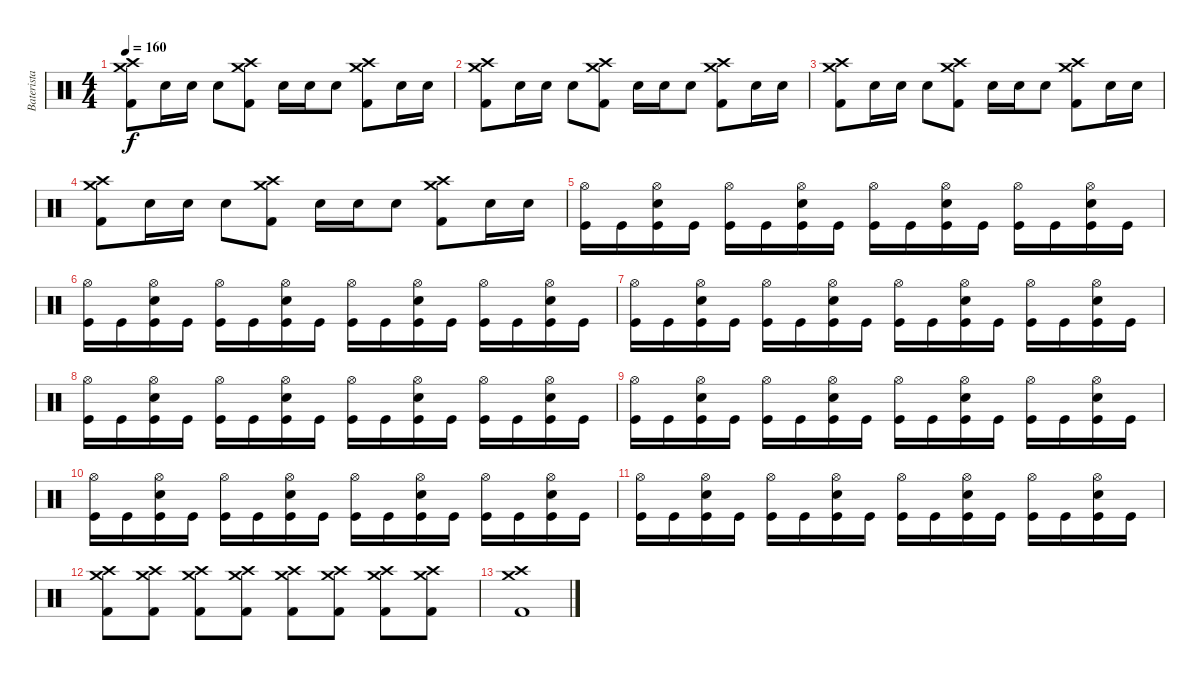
\track ("Baterista" "Baterista") {instrument percussion}
\staff {score}
\articulation defaults
\ts (4 4)
\tempo 160
\clef neutral
\ks c
("Kick (hit) 2" "Crash high (hit)" "Crash medium (hit)").8{dy f} "Electric Snare (hit)".16 "Electric Snare (hit)".16 "Electric Snare (hit)".8 ("Kick (hit) 2" "Crash high (hit)" "Crash medium (hit)").8 "Electric Snare (hit)".16 "Electric Snare (hit)".16 "Electric Snare (hit)".8 ("Kick (hit) 2" "Crash high (hit)" "Crash medium (hit)").8 "Electric Snare (hit)".16 "Electric Snare (hit)".16 |
("Kick (hit) 2" "Crash high (hit)" "Crash medium (hit)").8 "Electric Snare (hit)".16 "Electric Snare (hit)".16 "Electric Snare (hit)".8 ("Kick (hit) 2" "Crash high (hit)" "Crash medium (hit)").8 "Electric Snare (hit)".16 "Electric Snare (hit)".16 "Electric Snare (hit)".8 ("Kick (hit) 2" "Crash high (hit)" "Crash medium (hit)").8 "Electric Snare (hit)".16 "Electric Snare (hit)".16 |
("Kick (hit) 2" "Crash high (hit)" "Crash medium (hit)").8 "Electric Snare (hit)".16 "Electric Snare (hit)".16 "Electric Snare (hit)".8 ("Kick (hit) 2" "Crash high (hit)" "Crash medium (hit)").8 "Electric Snare (hit)".16 "Electric Snare (hit)".16 "Electric Snare (hit)".8 ("Kick (hit) 2" "Crash high (hit)" "Crash medium (hit)").8 "Electric Snare (hit)".16 "Electric Snare (hit)".16 |
("Kick (hit) 2" "Crash high (hit)" "Crash medium (hit)").8 "Electric Snare (hit)".16 "Electric Snare (hit)".16 "Electric Snare (hit)".8 ("Kick (hit) 2" "Crash high (hit)" "Crash medium (hit)").8 "Electric Snare (hit)".16 "Electric Snare (hit)".16 "Electric Snare (hit)".8 ("Kick (hit) 2" "Crash high (hit)" "Crash medium (hit)").8 "Electric Snare (hit)".16 "Electric Snare (hit)".16 |
("Hi-Hat (open)" "Kick (hit)").16 "Kick (hit)".16 ("Hi-Hat (open)" "Snare (hit) 2" "Kick (hit)").16 "Kick (hit)".16 ("Hi-Hat (open)" "Kick (hit)").16 "Kick (hit)".16 ("Hi-Hat (open)" "Snare (hit) 2" "Kick (hit)").16 "Kick (hit)".16 ("Hi-Hat (open)" "Kick (hit)").16 "Kick (hit)".16 ("Hi-Hat (open)" "Snare (hit) 2" "Kick (hit)").16 "Kick (hit)".16 ("Hi-Hat (open)" "Kick (hit)").16 "Kick (hit)".16 ("Hi-Hat (open)" "Snare (hit) 2" "Kick (hit)").16 "Kick (hit)".16 |
("Hi-Hat (open)" "Kick (hit)").16 "Kick (hit)".16 ("Hi-Hat (open)" "Snare (hit) 2" "Kick (hit)").16 "Kick (hit)".16 ("Hi-Hat (open)" "Kick (hit)").16 "Kick (hit)".16 ("Hi-Hat (open)" "Snare (hit) 2" "Kick (hit)").16 "Kick (hit)".16 ("Hi-Hat (open)" "Kick (hit)").16 "Kick (hit)".16 ("Hi-Hat (open)" "Snare (hit) 2" "Kick (hit)").16 "Kick (hit)".16 ("Hi-Hat (open)" "Kick (hit)").16 "Kick (hit)".16 ("Hi-Hat (open)" "Snare (hit) 2" "Kick (hit)").16 "Kick (hit)".16 |
("Hi-Hat (open)" "Kick (hit)").16 "Kick (hit)".16 ("Hi-Hat (open)" "Snare (hit) 2" "Kick (hit)").16 "Kick (hit)".16 ("Hi-Hat (open)" "Kick (hit)").16 "Kick (hit)".16 ("Hi-Hat (open)" "Snare (hit) 2" "Kick (hit)").16 "Kick (hit)".16 ("Hi-Hat (open)" "Kick (hit)").16 "Kick (hit)".16 ("Hi-Hat (open)" "Snare (hit) 2" "Kick (hit)").16 "Kick (hit)".16 ("Hi-Hat (open)" "Kick (hit)").16 "Kick (hit)".16 ("Hi-Hat (open)" "Snare (hit) 2" "Kick (hit)").16 "Kick (hit)".16 |
("Hi-Hat (open)" "Kick (hit)").16 "Kick (hit)".16 ("Hi-Hat (open)" "Snare (hit) 2" "Kick (hit)").16 "Kick (hit)".16 ("Hi-Hat (open)" "Kick (hit)").16 "Kick (hit)".16 ("Hi-Hat (open)" "Snare (hit) 2" "Kick (hit)").16 "Kick (hit)".16 ("Hi-Hat (open)" "Kick (hit)").16 "Kick (hit)".16 ("Hi-Hat (open)" "Snare (hit) 2" "Kick (hit)").16 "Kick (hit)".16 ("Hi-Hat (open)" "Kick (hit)").16 "Kick (hit)".16 ("Hi-Hat (open)" "Snare (hit) 2" "Kick (hit)").16 "Kick (hit)".16 |
("Hi-Hat (open)" "Kick (hit)").16 "Kick (hit)".16 ("Hi-Hat (open)" "Snare (hit) 2" "Kick (hit)").16 "Kick (hit)".16 ("Hi-Hat (open)" "Kick (hit)").16 "Kick (hit)".16 ("Hi-Hat (open)" "Snare (hit) 2" "Kick (hit)").16 "Kick (hit)".16 ("Hi-Hat (open)" "Kick (hit)").16 "Kick (hit)".16 ("Hi-Hat (open)" "Snare (hit) 2" "Kick (hit)").16 "Kick (hit)".16 ("Hi-Hat (open)" "Kick (hit)").16 "Kick (hit)".16 ("Hi-Hat (open)" "Snare (hit) 2" "Kick (hit)").16 "Kick (hit)".16 |
("Hi-Hat (open)" "Kick (hit)").16 "Kick (hit)".16 ("Hi-Hat (open)" "Snare (hit) 2" "Kick (hit)").16 "Kick (hit)".16 ("Hi-Hat (open)" "Kick (hit)").16 "Kick (hit)".16 ("Hi-Hat (open)" "Snare (hit) 2" "Kick (hit)").16 "Kick (hit)".16 ("Hi-Hat (open)" "Kick (hit)").16 "Kick (hit)".16 ("Hi-Hat (open)" "Snare (hit) 2" "Kick (hit)").16 "Kick (hit)".16 ("Hi-Hat (open)" "Kick (hit)").16 "Kick (hit)".16 ("Hi-Hat (open)" "Snare (hit) 2" "Kick (hit)").16 "Kick (hit)".16 |
("Hi-Hat (open)" "Kick (hit)").16 "Kick (hit)".16 ("Hi-Hat (open)" "Snare (hit) 2" "Kick (hit)").16 "Kick (hit)".16 ("Hi-Hat (open)" "Kick (hit)").16 "Kick (hit)".16 ("Hi-Hat (open)" "Snare (hit) 2" "Kick (hit)").16 "Kick (hit)".16 ("Hi-Hat (open)" "Kick (hit)").16 "Kick (hit)".16 ("Hi-Hat (open)" "Snare (hit) 2" "Kick (hit)").16 "Kick (hit)".16 ("Hi-Hat (open)" "Kick (hit)").16 "Kick (hit)".16 ("Hi-Hat (open)" "Snare (hit) 2" "Kick (hit)").16 "Kick (hit)".16 |
("Kick (hit) 2" "Crash high (hit)" "Crash medium (hit)").8 ("Kick (hit) 2" "Crash high (hit)" "Crash medium (hit)").8 ("Kick (hit) 2" "Crash high (hit)" "Crash medium (hit)").8 ("Kick (hit) 2" "Crash high (hit)" "Crash medium (hit)").8 ("Kick (hit) 2" "Crash high (hit)" "Crash medium (hit)").8 ("Kick (hit) 2" "Crash high (hit)" "Crash medium (hit)").8 ("Kick (hit) 2" "Crash high (hit)" "Crash medium (hit)").8 ("Kick (hit) 2" "Crash high (hit)" "Crash medium (hit)").8 |
("Kick (hit) 2" "Crash high (hit)" "Crash medium (hit)").1
